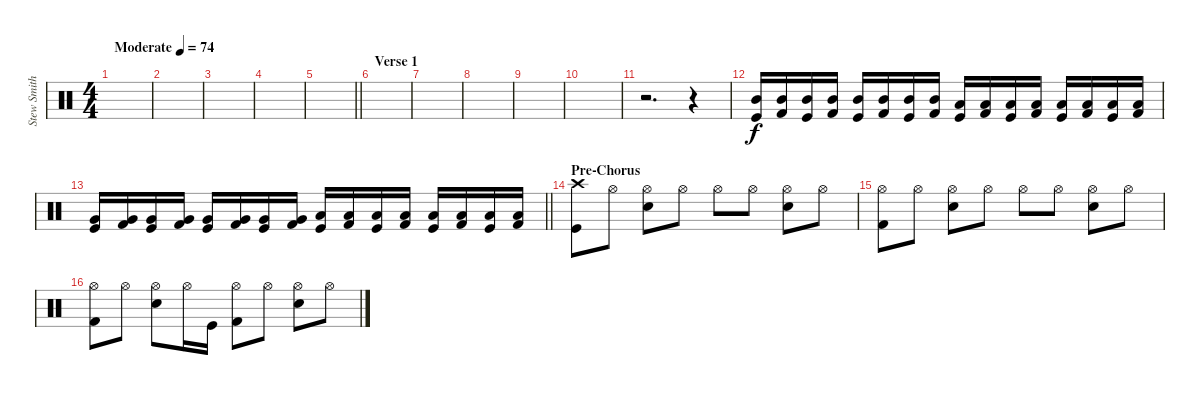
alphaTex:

\track ("Stew Smith" "Stew Smith") {instrument percussion}
\staff {score}
\articulation defaults
\ts (4 4)
\tempo (74 "Moderate")
\clef neutral
\ks c
|
|
|
|
\barLineRight lightlight
|
\section ("" "Verse 1")
|
|
|
|
|
r.2{d volume 0} r.4{volume 9} |
("Mid Tom (hit)" "Kick (hit)").16 ("Mid Tom (hit)" "Kick (hit) 2").16 ("Mid Tom (hit)" "Kick (hit)").16 ("Mid Tom (hit)" "Kick (hit) 2").16 ("Mid Tom (hit)" "Kick (hit)").16 ("Mid Tom (hit)" "Kick (hit) 2").16 ("Mid Tom (hit)" "Kick (hit)").16 ("Mid Tom (hit)" "Kick (hit) 2").16 ("Low Tom (hit)" "Kick (hit)").16 ("Low Tom (hit)" "Kick (hit) 2").16 ("Low Tom (hit)" "Kick (hit)").16 ("Low Tom (hit)" "Kick (hit) 2").16 ("Low Tom (hit)" "Kick (hit)").16 ("Low Tom (hit)" "Kick (hit) 2").16 ("Low Tom (hit)" "Kick (hit)").16 ("Low Tom (hit)" "Kick (hit) 2").16 |
\barLineRight lightlight
("Very Low Tom (hit)" "Kick (hit)").16 ("Very Low Tom (hit)" "Kick (hit) 2").16 ("Very Low Tom (hit)" "Kick (hit)").16 ("Very Low Tom (hit)" "Kick (hit) 2").16 ("Very Low Tom (hit)" "Kick (hit)").16 ("Very Low Tom (hit)" "Kick (hit) 2").16 ("Very Low Tom (hit)" "Kick (hit)").16 ("Very Low Tom (hit)" "Kick (hit) 2").16 ("Low Floor Tom (hit)" "Kick (hit)").16 ("Low Floor Tom (hit)" "Kick (hit) 2").16 ("Low Floor Tom (hit)" "Kick (hit)").16 ("Low Floor Tom (hit)" "Kick (hit) 2").16 ("Low Floor Tom (hit)" "Kick (hit)").16 ("Low Floor Tom (hit)" "Kick (hit) 2").16 ("Low Floor Tom (hit)" "Kick (hit)").16 ("Low Floor Tom (hit)" "Kick (hit) 2").16 |
\section ("" "Pre-Chorus")
("Crash high (hit)" "Kick (hit)").8 "Hi-Hat (open)".8 ("Hi-Hat (open)" "Electric Snare (hit)").8 "Hi-Hat (open)".8 "Hi-Hat (open)".8 "Hi-Hat (open)".8 ("Hi-Hat (open)" "Electric Snare (hit)").8 "Hi-Hat (open)".8 |
("Hi-Hat (open)" "Kick (hit) 2").8 "Hi-Hat (open)".8 ("Hi-Hat (open)" "Electric Snare (hit)").8 "Hi-Hat (open)".8 "Hi-Hat (open)".8 "Hi-Hat (open)".8 ("Hi-Hat (open)" "Electric Snare (hit)").8 "Hi-Hat (open)".8 |
("Hi-Hat (open)" "Kick (hit) 2").8 "Hi-Hat (open)".8 ("Hi-Hat (open)" "Electric Snare (hit)").8 "Hi-Hat (open)".16 "Kick (hit)".16 ("Hi-Hat (open)" "Kick (hit) 2").8 "Hi-Hat (open)".8 ("Hi-Hat (open)" "Electric Snare (hit)").8 "Hi-Hat (open)".8
